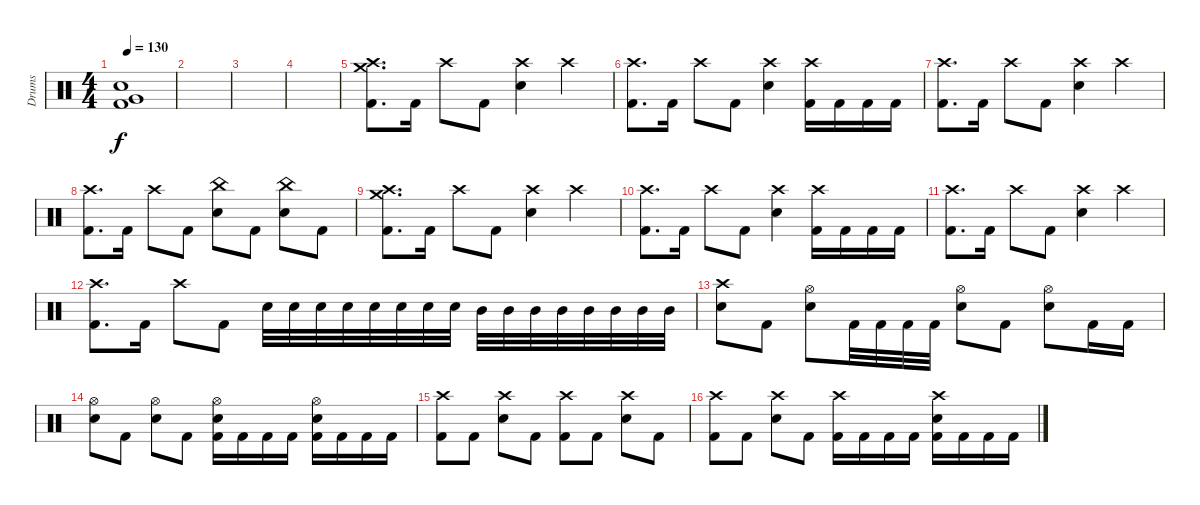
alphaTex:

\track ("Drums" "Drums") {instrument percussion}
\staff {score}
\articulation defaults
\ts (4 4)
\tempo 130
\clef neutral
\ks c
("Electric Snare (hit)" "Very Low Tom (hit)" "Kick (hit) 2").1{dy f} |
|
|
|
("Crash high (hit)" "Crash medium (hit)" "Kick (hit) 2").8{d} "Kick (hit) 2".16 "Crash high (hit)".8 "Kick (hit) 2".8 ("Crash high (hit)" "Electric Snare (hit)").4 "Crash high (hit)".4 |
("Crash high (hit)" "Kick (hit) 2").8{d} "Kick (hit) 2".16 "Crash high (hit)".8 "Kick (hit) 2".8 ("Crash high (hit)" "Electric Snare (hit)").4 ("Crash high (hit)" "Kick (hit) 2").16 "Kick (hit) 2".16 "Kick (hit) 2".16 "Kick (hit) 2".16 |
("Crash high (hit)" "Kick (hit) 2").8{d} "Kick (hit) 2".16 "Crash high (hit)".8 "Kick (hit) 2".8 ("Crash high (hit)" "Electric Snare (hit)").4 "Crash high (hit)".4 |
("Crash high (hit)" "Kick (hit) 2").8{d} "Kick (hit) 2".16 "Crash high (hit)".8 "Kick (hit) 2".8 ("China (hit)" "Electric Snare (hit)").8 "Kick (hit) 2".8 ("China (hit)" "Electric Snare (hit)").8 "Kick (hit) 2".8 |
("Crash high (hit)" "Crash medium (hit)" "Kick (hit) 2").8{d} "Kick (hit) 2".16 "Crash high (hit)".8 "Kick (hit) 2".8 ("Crash high (hit)" "Electric Snare (hit)").4 "Crash high (hit)".4 |
("Crash high (hit)" "Kick (hit) 2").8{d} "Kick (hit) 2".16 "Crash high (hit)".8 "Kick (hit) 2".8 ("Crash high (hit)" "Electric Snare (hit)").4 ("Crash high (hit)" "Kick (hit) 2").16 "Kick (hit) 2".16 "Kick (hit) 2".16 "Kick (hit) 2".16 |
("Crash high (hit)" "Kick (hit) 2").8{d} "Kick (hit) 2".16 "Crash high (hit)".8 "Kick (hit) 2".8 ("Crash high (hit)" "Electric Snare (hit)").4 "Crash high (hit)".4 |
("Crash high (hit)" "Kick (hit) 2").8{d} "Kick (hit) 2".16 "Crash high (hit)".8 "Kick (hit) 2".8 "Electric Snare (hit)".32 "Electric Snare (hit)".32 "Electric Snare (hit)".32 "Electric Snare (hit)".32 "Electric Snare (hit)".32 "Electric Snare (hit)".32 "Electric Snare (hit)".32 "Electric Snare (hit)".32 "Mid Tom (hit)".32 "Mid Tom (hit)".32 "Mid Tom (hit)".32 "Mid Tom (hit)".32 "Mid Tom (hit)".32 "Mid Tom (hit)".32 "Mid Tom (hit)".32 "Mid Tom (hit)".32 |
("Crash high (hit)" "Electric Snare (hit)").8 "Kick (hit) 2".8 ("Hi-Hat (open)" "Electric Snare (hit)").8 "Kick (hit) 2".32 "Kick (hit) 2".32 "Kick (hit) 2".32 "Kick (hit) 2".32 ("Hi-Hat (open)" "Electric Snare (hit)").8 "Kick (hit) 2".8 ("Hi-Hat (open)" "Electric Snare (hit)").8 "Kick (hit) 2".16 "Kick (hit) 2".16 |
("Hi-Hat (open)" "Electric Snare (hit)").8 "Kick (hit) 2".8 ("Hi-Hat (open)" "Electric Snare (hit)").8 "Kick (hit) 2".8 ("Hi-Hat (open)" "Electric Snare (hit)" "Kick (hit) 2").16 "Kick (hit) 2".16 "Kick (hit) 2".16 "Kick (hit) 2".16 ("Hi-Hat (open)" "Electric Snare (hit)" "Kick (hit) 2").16 "Kick (hit) 2".16 "Kick (hit) 2".16 "Kick (hit) 2".16 |
("Crash high (hit)" "Kick (hit) 2").8 "Kick (hit) 2".8 ("Crash high (hit)" "Electric Snare (hit)").8 "Kick (hit) 2".8 ("Crash high (hit)" "Kick (hit) 2").8 "Kick (hit) 2".8 ("Crash high (hit)" "Electric Snare (hit)").8 "Kick (hit) 2".8 |
("Crash high (hit)" "Kick (hit) 2").8 "Kick (hit) 2".8 ("Crash high (hit)" "Electric Snare (hit)").8 "Kick (hit) 2".8 ("Crash high (hit)" "Kick (hit) 2").16 "Kick (hit) 2".16 "Kick (hit) 2".16 "Kick (hit) 2".16 ("Crash high (hit)" "Electric Snare (hit)" "Kick (hit) 2").16 "Kick (hit) 2".16 "Kick (hit) 2".16 "Kick (hit) 2".16
